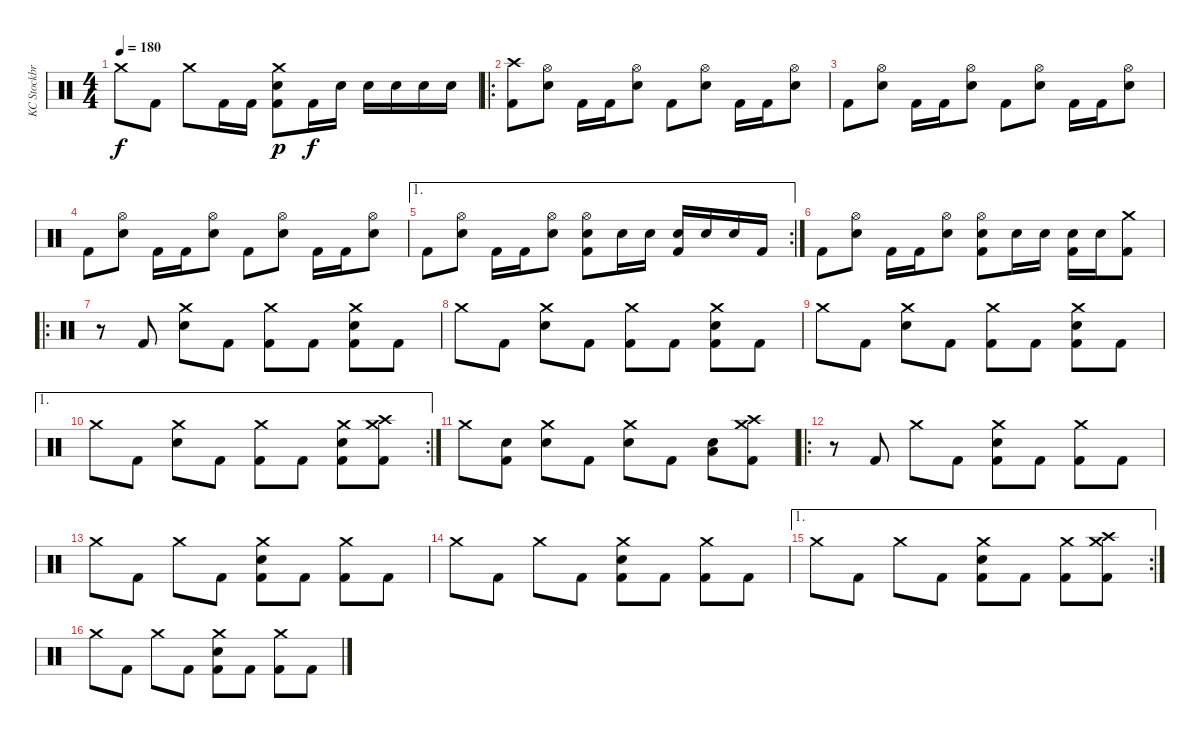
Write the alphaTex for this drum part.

\track ("KC Stockbridge" "KC Stockbr") {instrument percussion}
\staff {score}
\articulation defaults
\ts (4 4)
\tempo 180
\clef neutral
\ks c "Crash medium (hit)".8{dy f} "Kick (hit) 2".8 "Crash medium (hit)".8 "Kick (hit) 2".16 "Kick (hit) 2".16
("Crash medium (hit)" "Electric Snare (hit)" "Kick (hit) 2").8{dy p} "Kick (hit) 2".16{dy f} "Electric Snare (hit)".16 "Electric Snare (hit)".16 "Electric Snare (hit)".16 "Electric Snare (hit)".16 "Electric Snare (hit)".16 |
\ro
("Crash high (hit)" "Kick (hit) 2").8 ("Hi-Hat (open)" "Electric Snare (hit)").8 "Kick (hit) 2".16 "Kick (hit) 2".16 ("Hi-Hat (open)" "Electric Snare (hit)").8 "Kick (hit) 2".8 ("Hi-Hat (open)" "Electric Snare (hit)").8 "Kick (hit) 2".16 "Kick (hit) 2".16 ("Hi-Hat (open)" "Electric Snare (hit)").8 |
"Kick (hit) 2".8 ("Hi-Hat (open)" "Electric Snare (hit)").8 "Kick (hit) 2".16 "Kick (hit) 2".16 ("Hi-Hat (open)" "Electric Snare (hit)").8 "Kick (hit) 2".8 ("Hi-Hat (open)" "Electric Snare (hit)").8 "Kick (hit) 2".16 "Kick (hit) 2".16 ("Hi-Hat (open)" "Electric Snare (hit)").8 |
"Kick (hit) 2".8 ("Hi-Hat (open)" "Electric Snare (hit)").8 "Kick (hit) 2".16 "Kick (hit) 2".16 ("Hi-Hat (open)" "Electric Snare (hit)").8 "Kick (hit) 2".8 ("Hi-Hat (open)" "Electric Snare (hit)").8 "Kick (hit) 2".16 "Kick (hit) 2".16 ("Hi-Hat (open)" "Electric Snare (hit)").8 |
\ae 1
\rc 2 "Kick (hit) 2".8
("Hi-Hat (open)" "Electric Snare (hit)").8 "Kick (hit) 2".16 "Kick (hit) 2".16 ("Hi-Hat (open)" "Electric Snare (hit)").8 ("Hi-Hat (open)" "Electric Snare (hit)" "Kick (hit) 2").8 "Electric Snare (hit)".16 "Electric Snare (hit)".16 ("Electric Snare (hit)" "Kick (hit) 2").16 "Electric Snare (hit)".16 "Electric Snare (hit)".16 "Kick (hit) 2".16 |
"Kick (hit) 2".8 ("Hi-Hat (open)" "Electric Snare (hit)").8 "Kick (hit) 2".16 "Kick (hit) 2".16 ("Hi-Hat (open)" "Electric Snare (hit)").8 ("Hi-Hat (open)" "Electric Snare (hit)" "Kick (hit) 2").8 "Electric Snare (hit)".16 "Electric Snare (hit)".16 ("Electric Snare (hit)" "Kick (hit) 2").16 "Electric Snare (hit)".16 ("Crash medium (hit)" "Kick (hit) 2").8 |
\ro
r.8 "Kick (hit) 2".8 ("Crash medium (hit)" "Electric Snare (hit)").8 "Kick (hit) 2".8 ("Crash medium (hit)" "Kick (hit) 2").8 "Kick (hit) 2".8 ("Crash medium (hit)" "Electric Snare (hit)" "Kick (hit) 2").8 "Kick (hit) 2".8 |
"Crash medium (hit)".8 "Kick (hit) 2".8 ("Crash medium (hit)" "Electric Snare (hit)").8 "Kick (hit) 2".8 ("Crash medium (hit)" "Kick (hit) 2").8 "Kick (hit) 2".8 ("Crash medium (hit)" "Electric Snare (hit)" "Kick (hit) 2").8 "Kick (hit) 2".8 |
"Crash medium (hit)".8 "Kick (hit) 2".8 ("Crash medium (hit)" "Electric Snare (hit)").8 "Kick (hit) 2".8 ("Crash medium (hit)" "Kick (hit) 2").8 "Kick (hit) 2".8 ("Crash medium (hit)" "Electric Snare (hit)" "Kick (hit) 2").8 "Kick (hit) 2".8 |
\ae 1
\rc 2 "Crash medium (hit)".8 "Kick (hit) 2".8
("Crash medium (hit)" "Electric Snare (hit)").8 "Kick (hit) 2".8 ("Crash medium (hit)" "Kick (hit) 2").8 "Kick (hit) 2".8 ("Crash medium (hit)" "Electric Snare (hit)" "Kick (hit) 2").8 ("Crash high (hit)" "Crash medium (hit)" "Kick (hit) 2").8 |
"Crash medium (hit)".8 ("Electric Snare (hit)" "Kick (hit) 2").8 ("Crash medium (hit)" "Electric Snare (hit)").8 "Kick (hit) 2".8 ("Crash medium (hit)" "Electric Snare (hit)").8 "Kick (hit) 2".8 ("Low Tom (hit)" "Electric Snare (hit)").8 ("Crash medium (hit)" "Crash high (hit)" "Kick (hit) 2").8 |
\ro
r.8 "Kick (hit) 2".8 "Crash medium (hit)".8 "Kick (hit) 2".8 ("Crash medium (hit)" "Electric Snare (hit)" "Kick (hit) 2").8 "Kick (hit) 2".8 ("Crash medium (hit)" "Kick (hit) 2").8 "Kick (hit) 2".8 |
"Crash medium (hit)".8 "Kick (hit) 2".8 "Crash medium (hit)".8 "Kick (hit) 2".8 ("Crash medium (hit)" "Electric Snare (hit)" "Kick (hit) 2").8 "Kick (hit) 2".8 ("Crash medium (hit)" "Kick (hit) 2").8 "Kick (hit) 2".8 |
"Crash medium (hit)".8 "Kick (hit) 2".8 "Crash medium (hit)".8 "Kick (hit) 2".8 ("Crash medium (hit)" "Electric Snare (hit)" "Kick (hit) 2").8 "Kick (hit) 2".8 ("Crash medium (hit)" "Kick (hit) 2").8 "Kick (hit) 2".8 |
\ae 1
\rc 2 "Crash medium (hit)".8 "Kick (hit) 2".8 "Crash medium (hit)".8 "Kick (hit) 2".8
("Crash medium (hit)" "Electric Snare (hit)" "Kick (hit) 2").8 "Kick (hit) 2".8 ("Crash medium (hit)" "Kick (hit) 2").8 ("Crash medium (hit)" "Crash high (hit)" "Kick (hit) 2").8 |
"Crash medium (hit)".8 "Kick (hit) 2".8 "Crash medium (hit)".8 "Kick (hit) 2".8 ("Crash medium (hit)" "Electric Snare (hit)" "Kick (hit) 2").8 "Kick (hit) 2".8 ("Crash medium (hit)" "Kick (hit) 2").8 "Kick (hit) 2".8
